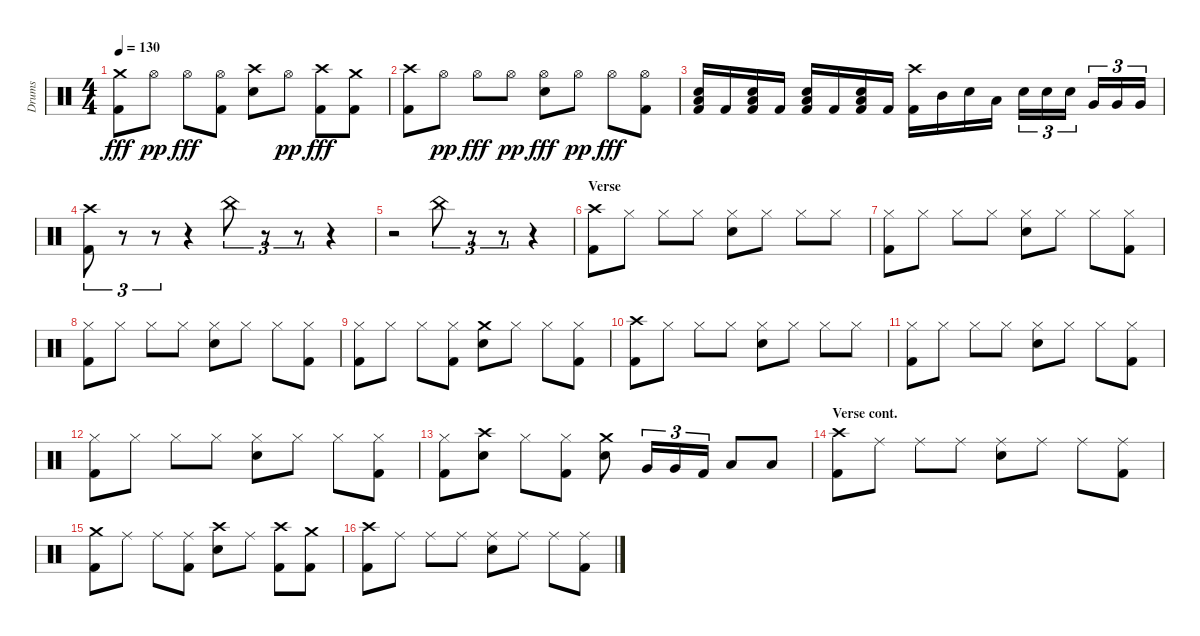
\track ("Drums" "Drums") {instrument percussion}
\staff {score}
\articulation defaults
\ts (4 4)
\tempo 130
\clef neutral
\ks aminor
("Kick (hit) 2" "Crash medium (hit)").8{dy fff} "Hi-Hat (open)".8{dy pp} "Hi-Hat (open)".8{dy fff} ("Kick (hit) 2" "Hi-Hat (open)").8 ("Snare (hit) 2" "Crash high (hit)").8 "Hi-Hat (open)".8{dy pp} ("Kick (hit) 2" "Crash high (hit)").8{dy fff} ("Kick (hit) 2" "Crash medium (hit)").8 |
("Kick (hit) 2" "Crash high (hit)").8 "Hi-Hat (open)".8{dy pp} "Hi-Hat (open)".8{dy fff} "Hi-Hat (open)".8{dy pp} ("Snare (hit) 2" "Hi-Hat (open)").8{dy fff} "Hi-Hat (open)".8{dy pp} "Hi-Hat (open)".8{dy fff} ("Kick (hit) 2" "Hi-Hat (open)").8 |
("Kick (hit) 2" "Snare (hit) 2" "Low Floor Tom (hit)").16 "Kick (hit) 2".16 ("Kick (hit) 2" "Snare (hit) 2" "Low Floor Tom (hit)").16 "Kick (hit) 2".16 ("Kick (hit) 2" "Snare (hit) 2" "Low Floor Tom (hit)").16 "Kick (hit) 2".16 ("Kick (hit) 2" "Snare (hit) 2" "Low Floor Tom (hit)").16 "Kick (hit) 2".16 ("Kick (hit) 2" "Crash high (hit)").16 "Mid Tom (hit)".16 "Snare (hit) 2".16 "Low Tom (hit)".16 "Snare (hit) 2".16{tu (3 2)} "Snare (hit) 2".16{tu (3 2)} "Snare (hit) 2".16{tu (3 2)} "Very Low Tom (hit)".16{tu (3 2)} "Very Low Tom (hit)".16{tu (3 2)} "Very Low Tom (hit)".16{tu (3 2)} |
("Kick (hit) 2" "Crash high (hit)").8{tu (3 2)} r.8{tu (3 2)} r.8{tu (3 2)} r.4 "China (hit)".8{tu (3 2)} r.8{tu (3 2)} r.8{tu (3 2)} r.4 |
r.2 "China (hit)".8{tu (3 2)} r.8{tu (3 2)} r.8{tu (3 2)} r.4 |
\section ("" "Verse")
("Kick (hit) 2" "Crash high (hit)").8 "Hi-Hat (closed)".8 "Hi-Hat (closed)".8 "Hi-Hat (closed)".8 ("Snare (hit) 2" "Hi-Hat (closed)").8 "Hi-Hat (closed)".8 "Hi-Hat (closed)".8 "Hi-Hat (closed)".8 |
("Kick (hit) 2" "Hi-Hat (closed)").8 "Hi-Hat (closed)".8 "Hi-Hat (closed)".8 "Hi-Hat (closed)".8 ("Snare (hit) 2" "Hi-Hat (closed)").8 "Hi-Hat (closed)".8 "Hi-Hat (closed)".8 ("Kick (hit) 2" "Hi-Hat (closed)").8 |
("Kick (hit) 2" "Hi-Hat (closed)").8 "Hi-Hat (closed)".8 "Hi-Hat (closed)".8 "Hi-Hat (closed)".8 ("Snare (hit) 2" "Hi-Hat (closed)").8 "Hi-Hat (closed)".8 "Hi-Hat (closed)".8 ("Kick (hit) 2" "Hi-Hat (closed)").8 |
("Kick (hit) 2" "Hi-Hat (closed)").8 "Hi-Hat (closed)".8 "Hi-Hat (closed)".8 ("Kick (hit) 2" "Hi-Hat (closed)").8 ("Snare (hit) 2" "Crash medium (hit)").8 "Hi-Hat (closed)".8 "Hi-Hat (closed)".8 ("Kick (hit) 2" "Hi-Hat (closed)").8 |
("Kick (hit) 2" "Crash high (hit)").8 "Hi-Hat (closed)".8 "Hi-Hat (closed)".8 "Hi-Hat (closed)".8 ("Snare (hit) 2" "Hi-Hat (closed)").8 "Hi-Hat (closed)".8 "Hi-Hat (closed)".8 "Hi-Hat (closed)".8 |
("Kick (hit) 2" "Hi-Hat (closed)").8 "Hi-Hat (closed)".8 "Hi-Hat (closed)".8 "Hi-Hat (closed)".8 ("Snare (hit) 2" "Hi-Hat (closed)").8 "Hi-Hat (closed)".8 "Hi-Hat (closed)".8 ("Kick (hit) 2" "Hi-Hat (closed)").8 |
("Kick (hit) 2" "Hi-Hat (closed)").8 "Hi-Hat (closed)".8 "Hi-Hat (closed)".8 "Hi-Hat (closed)".8 ("Snare (hit) 2" "Hi-Hat (closed)").8 "Hi-Hat (closed)".8 "Hi-Hat (closed)".8 ("Kick (hit) 2" "Hi-Hat (closed)").8 |
("Kick (hit) 2" "Hi-Hat (closed)").8 ("Snare (hit) 2" "Crash high (hit)").8 "Hi-Hat (closed)".8 ("Kick (hit) 2" "Hi-Hat (closed)").8 ("Snare (hit) 2" "Crash medium (hit)").8 "Very Low Tom (hit)".16{tu (3 2)} "Very Low Tom (hit)".16{tu (3 2)} "Kick (hit) 2".16{tu (3 2)} "Low Floor Tom (hit)".8 "Low Floor Tom (hit)".8 |
\section ("" "Verse cont.")
("Kick (hit) 2" "Crash high (hit)").8 "Ride (middle)".8 "Ride (middle)".8 "Ride (middle)".8 ("Snare (hit) 2" "Ride (middle)").8 "Ride (middle)".8 "Ride (middle)".8 ("Kick (hit) 2" "Ride (middle)").8 |
("Kick (hit) 2" "Crash medium (hit)").8 "Ride (middle)".8 "Ride (middle)".8 ("Kick (hit) 2" "Ride (middle)").8 ("Snare (hit) 2" "Crash high (hit)").8 "Ride (middle)".8 ("Kick (hit) 2" "Crash high (hit)").8 ("Kick (hit) 2" "Crash medium (hit)").8 |
("Kick (hit) 2" "Crash high (hit)").8 "Ride (middle)".8 "Ride (middle)".8 "Ride (middle)".8 ("Snare (hit) 2" "Ride (middle)").8 "Ride (middle)".8 "Ride (middle)".8 ("Kick (hit) 2" "Ride (middle)").8
